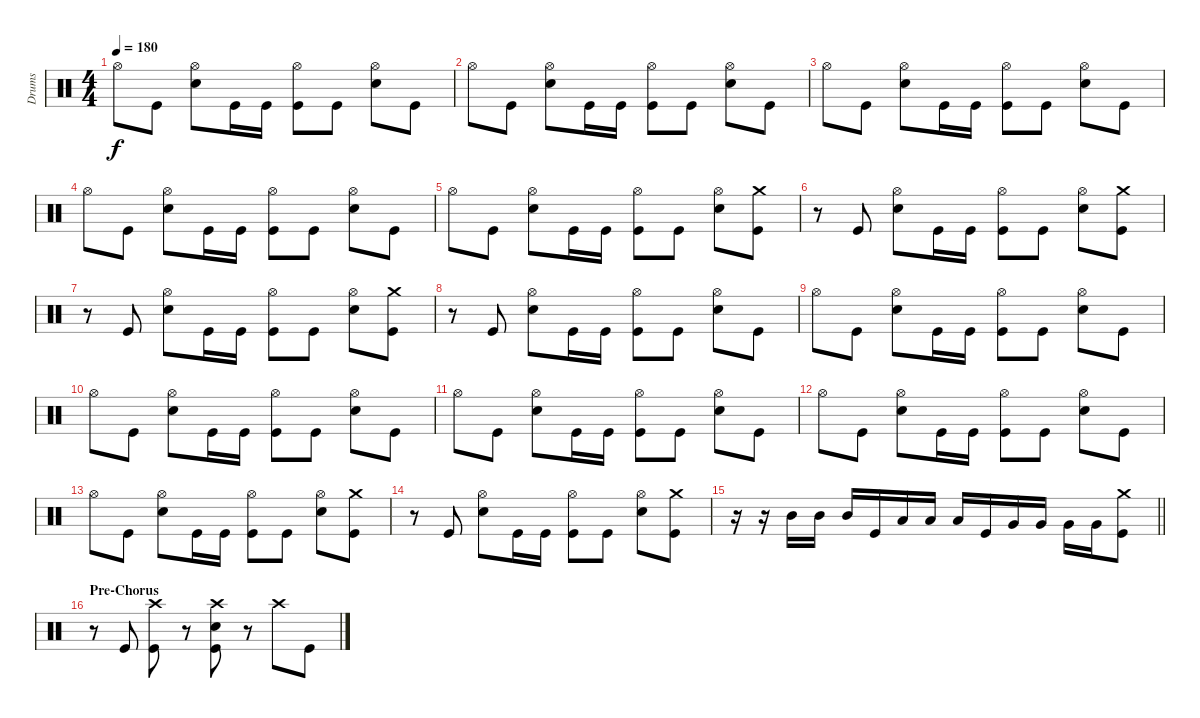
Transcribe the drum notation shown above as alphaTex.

\track ("Drums" "Drums") {instrument percussion}
\staff {score}
\articulation defaults
\ts (4 4)
\tempo 180
\clef neutral
\ks c "Hi-Hat (open)".8{dy f} "Kick (hit)".8
("Hi-Hat (open)" "Electric Snare (hit)").8 "Kick (hit)".16 "Kick (hit)".16 ("Hi-Hat (open)" "Kick (hit)").8 "Kick (hit)".8 ("Hi-Hat (open)" "Electric Snare (hit)").8 "Kick (hit)".8 |
"Hi-Hat (open)".8 "Kick (hit)".8 ("Hi-Hat (open)" "Electric Snare (hit)").8 "Kick (hit)".16 "Kick (hit)".16 ("Hi-Hat (open)" "Kick (hit)").8 "Kick (hit)".8 ("Hi-Hat (open)" "Electric Snare (hit)").8 "Kick (hit)".8 |
"Hi-Hat (open)".8 "Kick (hit)".8 ("Hi-Hat (open)" "Electric Snare (hit)").8 "Kick (hit)".16 "Kick (hit)".16 ("Hi-Hat (open)" "Kick (hit)").8 "Kick (hit)".8 ("Hi-Hat (open)" "Electric Snare (hit)").8 "Kick (hit)".8 |
"Hi-Hat (open)".8 "Kick (hit)".8 ("Hi-Hat (open)" "Electric Snare (hit)").8 "Kick (hit)".16 "Kick (hit)".16 ("Hi-Hat (open)" "Kick (hit)").8 "Kick (hit)".8 ("Hi-Hat (open)" "Electric Snare (hit)").8 "Kick (hit)".8 |
"Hi-Hat (open)".8 "Kick (hit)".8 ("Hi-Hat (open)" "Electric Snare (hit)").8 "Kick (hit)".16 "Kick (hit)".16 ("Hi-Hat (open)" "Kick (hit)").8 "Kick (hit)".8 ("Hi-Hat (open)" "Electric Snare (hit)").8 ("Crash medium (hit)" "Kick (hit)").8 |
r.8 "Kick (hit)".8 ("Hi-Hat (open)" "Electric Snare (hit)").8 "Kick (hit)".16 "Kick (hit)".16 ("Hi-Hat (open)" "Kick (hit)").8 "Kick (hit)".8 ("Hi-Hat (open)" "Electric Snare (hit)").8 ("Crash medium (hit)" "Kick (hit)").8 |
r.8 "Kick (hit)".8 ("Hi-Hat (open)" "Electric Snare (hit)").8 "Kick (hit)".16 "Kick (hit)".16 ("Hi-Hat (open)" "Kick (hit)").8 "Kick (hit)".8 ("Hi-Hat (open)" "Electric Snare (hit)").8 ("Crash medium (hit)" "Kick (hit)").8 |
r.8 "Kick (hit)".8 ("Hi-Hat (open)" "Electric Snare (hit)").8 "Kick (hit)".16 "Kick (hit)".16 ("Hi-Hat (open)" "Kick (hit)").8 "Kick (hit)".8 ("Hi-Hat (open)" "Electric Snare (hit)").8 "Kick (hit)".8 |
"Hi-Hat (open)".8 "Kick (hit)".8 ("Hi-Hat (open)" "Electric Snare (hit)").8 "Kick (hit)".16 "Kick (hit)".16 ("Hi-Hat (open)" "Kick (hit)").8 "Kick (hit)".8 ("Hi-Hat (open)" "Electric Snare (hit)").8 "Kick (hit)".8 |
"Hi-Hat (open)".8 "Kick (hit)".8 ("Hi-Hat (open)" "Electric Snare (hit)").8 "Kick (hit)".16 "Kick (hit)".16 ("Hi-Hat (open)" "Kick (hit)").8 "Kick (hit)".8 ("Hi-Hat (open)" "Electric Snare (hit)").8 "Kick (hit)".8 |
"Hi-Hat (open)".8 "Kick (hit)".8 ("Hi-Hat (open)" "Electric Snare (hit)").8 "Kick (hit)".16 "Kick (hit)".16 ("Hi-Hat (open)" "Kick (hit)").8 "Kick (hit)".8 ("Hi-Hat (open)" "Electric Snare (hit)").8 "Kick (hit)".8 |
"Hi-Hat (open)".8 "Kick (hit)".8 ("Hi-Hat (open)" "Electric Snare (hit)").8 "Kick (hit)".16 "Kick (hit)".16 ("Hi-Hat (open)" "Kick (hit)").8 "Kick (hit)".8 ("Hi-Hat (open)" "Electric Snare (hit)").8 "Kick (hit)".8 |
"Hi-Hat (open)".8 "Kick (hit)".8 ("Hi-Hat (open)" "Electric Snare (hit)").8 "Kick (hit)".16 "Kick (hit)".16 ("Hi-Hat (open)" "Kick (hit)").8 "Kick (hit)".8 ("Hi-Hat (open)" "Electric Snare (hit)").8 ("Crash medium (hit)" "Kick (hit)").8 |
r.8 "Kick (hit)".8 ("Hi-Hat (open)" "Electric Snare (hit)").8 "Kick (hit)".16 "Kick (hit)".16 ("Hi-Hat (open)" "Kick (hit)").8 "Kick (hit)".8 ("Hi-Hat (open)" "Electric Snare (hit)").8 ("Crash medium (hit)" "Kick (hit)").8 |
\barLineRight lightlight
r.16 r.16 "Mid Tom (hit)".16 "Mid Tom (hit)".16 "Mid Tom (hit)".16 "Kick (hit)".16 "Low Tom (hit)".16 "Low Tom (hit)".16 "Low Tom (hit)".16 "Kick (hit)".16 "Very Low Tom (hit)".16 "Very Low Tom (hit)".16 "Very Low Tom (hit)".16 "Very Low Tom (hit)".16 ("Crash medium (hit)" "Kick (hit)").8 |
\section ("" "Pre-Chorus")
r.8 "Kick (hit)".8 ("Crash high (hit)" "Kick (hit)").8 r.8 ("Crash high (hit)" "Electric Snare (hit)" "Kick (hit)").8 r.8 "Crash high (hit)".8 "Kick (hit)".8
